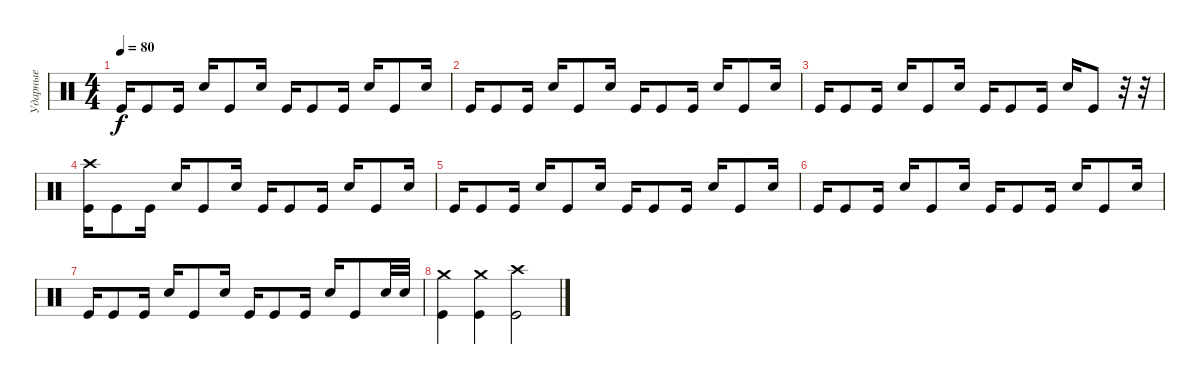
\track ("Ударные" "Ударные") {instrument percussion}
\staff {score}
\articulation defaults
\ts (4 4)
\tempo 80
\clef neutral
\ks c "Kick (hit)".16{dy f} "Kick (hit)".8 "Kick (hit)".16 "Snare (hit) 2".16 "Kick (hit)".8 "Snare (hit) 2".16 "Kick (hit)".16 "Kick (hit)".8 "Kick (hit)".16 "Snare (hit) 2".16 "Kick (hit)".8 "Snare (hit) 2".16
|
"Kick (hit)".16 "Kick (hit)".8 "Kick (hit)".16 "Snare (hit) 2".16 "Kick (hit)".8 "Snare (hit) 2".16 "Kick (hit)".16 "Kick (hit)".8 "Kick (hit)".16 "Snare (hit) 2".16 "Kick (hit)".8 "Snare (hit) 2".16 |
"Kick (hit)".16 "Kick (hit)".8 "Kick (hit)".16 "Snare (hit) 2".16 "Kick (hit)".8 "Snare (hit) 2".16 "Kick (hit)".16 "Kick (hit)".8 "Kick (hit)".16 "Snare (hit) 2".16 "Kick (hit)".8 r.32 r.32 |
("Kick (hit)" "Crash high (hit)").16 "Kick (hit)".8 "Kick (hit)".16 "Snare (hit) 2".16 "Kick (hit)".8 "Snare (hit) 2".16 "Kick (hit)".16 "Kick (hit)".8 "Kick (hit)".16 "Snare (hit) 2".16 "Kick (hit)".8 "Snare (hit) 2".16 |
"Kick (hit)".16 "Kick (hit)".8 "Kick (hit)".16 "Snare (hit) 2".16 "Kick (hit)".8 "Snare (hit) 2".16 "Kick (hit)".16 "Kick (hit)".8 "Kick (hit)".16 "Snare (hit) 2".16 "Kick (hit)".8 "Snare (hit) 2".16 |
"Kick (hit)".16 "Kick (hit)".8 "Kick (hit)".16 "Snare (hit) 2".16 "Kick (hit)".8 "Snare (hit) 2".16 "Kick (hit)".16 "Kick (hit)".8 "Kick (hit)".16 "Snare (hit) 2".16 "Kick (hit)".8 "Snare (hit) 2".16 |
"Kick (hit)".16 "Kick (hit)".8 "Kick (hit)".16 "Snare (hit) 2".16 "Kick (hit)".8 "Snare (hit) 2".16 "Kick (hit)".16 "Kick (hit)".8 "Kick (hit)".16 "Snare (hit) 2".16 "Kick (hit)".8 "Snare (hit) 2".32 "Snare (hit) 2".32 |
("Kick (hit)" "Crash medium (hit)").4 ("Kick (hit)" "Crash medium (hit)").4 ("Kick (hit)" "Crash high (hit)").2
